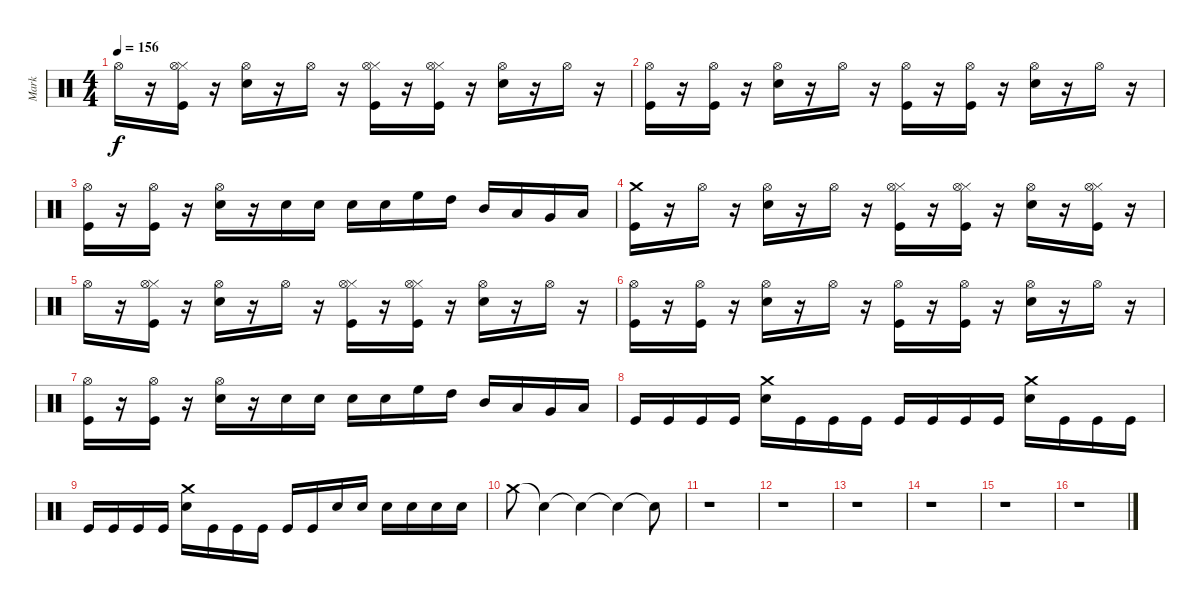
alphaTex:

\track ("Mark" "Mark") {instrument percussion}
\staff {score}
\articulation defaults
\ts (4 4)
\tempo 156
\clef neutral
\ks c "Hi-Hat (open)".16{dy f}
r.16 ("Kick (hit)" "Hi-Hat (closed)" "Hi-Hat (open)").16 r.16 ("Hi-Hat (open)" "Snare (hit) 2").16 r.16 "Hi-Hat (open)".16 r.16 ("Kick (hit)" "Hi-Hat (closed)" "Hi-Hat (open)").16 r.16 ("Kick (hit)" "Hi-Hat (closed)" "Hi-Hat (open)").16 r.16 ("Hi-Hat (open)" "Snare (hit) 2").16 r.16 "Hi-Hat (open)".16 r.16 |
("Kick (hit)" "Hi-Hat (open)").16 r.16 ("Kick (hit)" "Hi-Hat (open)").16 r.16 ("Snare (hit) 2" "Hi-Hat (open)").16 r.16 "Hi-Hat (open)".16 r.16 ("Kick (hit)" "Hi-Hat (open)").16 r.16 ("Kick (hit)" "Hi-Hat (open)").16 r.16 ("Snare (hit) 2" "Hi-Hat (open)").16 r.16 "Hi-Hat (open)".16 r.16 |
("Kick (hit)" "Hi-Hat (open)").16 r.16 ("Kick (hit)" "Hi-Hat (open)").16 r.16 ("Snare (hit) 2" "Hi-Hat (open)").16 r.16 "Snare (hit) 2".16 "Snare (hit) 2".16 "Snare (hit) 2".16 "Snare (hit) 2".16 "High Floor Tom (hit)".16 "High Tom (hit)".16 "Mid Tom (hit)".16 "Low Tom (hit)".16 "Very Low Tom (hit)".16 "Low Floor Tom (hit)".16 |
("Kick (hit)" "Crash medium (hit)").16 r.16 "Hi-Hat (open)".16 r.16 ("Hi-Hat (open)" "Snare (hit) 2").16 r.16 "Hi-Hat (open)".16 r.16 ("Kick (hit)" "Hi-Hat (closed)" "Hi-Hat (open)").16 r.16 ("Kick (hit)" "Hi-Hat (closed)" "Hi-Hat (open)").16 r.16 ("Hi-Hat (open)" "Snare (hit) 2").16 r.16 ("Kick (hit)" "Hi-Hat (closed)" "Hi-Hat (open)").16 r.16 |
"Hi-Hat (open)".16 r.16 ("Kick (hit)" "Hi-Hat (closed)" "Hi-Hat (open)").16 r.16 ("Hi-Hat (open)" "Snare (hit) 2").16 r.16 "Hi-Hat (open)".16 r.16 ("Kick (hit)" "Hi-Hat (closed)" "Hi-Hat (open)").16 r.16 ("Kick (hit)" "Hi-Hat (closed)" "Hi-Hat (open)").16 r.16 ("Hi-Hat (open)" "Snare (hit) 2").16 r.16 "Hi-Hat (open)".16 r.16 |
("Kick (hit)" "Hi-Hat (open)").16 r.16 ("Kick (hit)" "Hi-Hat (open)").16 r.16 ("Snare (hit) 2" "Hi-Hat (open)").16 r.16 "Hi-Hat (open)".16 r.16 ("Kick (hit)" "Hi-Hat (open)").16 r.16 ("Kick (hit)" "Hi-Hat (open)").16 r.16 ("Snare (hit) 2" "Hi-Hat (open)").16 r.16 "Hi-Hat (open)".16 r.16 |
("Kick (hit)" "Hi-Hat (open)").16 r.16 ("Kick (hit)" "Hi-Hat (open)").16 r.16 ("Snare (hit) 2" "Hi-Hat (open)").16 r.16 "Snare (hit) 2".16 "Snare (hit) 2".16 "Snare (hit) 2".16 "Snare (hit) 2".16 "High Floor Tom (hit)".16 "High Tom (hit)".16 "Mid Tom (hit)".16 "Low Tom (hit)".16 "Very Low Tom (hit)".16 "Low Floor Tom (hit)".16 |
"Kick (hit)".16 "Kick (hit)".16 "Kick (hit)".16 "Kick (hit)".16 ("Snare (hit) 2" "Crash medium (hit)").16 "Kick (hit)".16 "Kick (hit)".16 "Kick (hit)".16 "Kick (hit)".16 "Kick (hit)".16 "Kick (hit)".16 "Kick (hit)".16 ("Snare (hit) 2" "Crash medium (hit)").16 "Kick (hit)".16 "Kick (hit)".16 "Kick (hit)".16 |
"Kick (hit)".16 "Kick (hit)".16 "Kick (hit)".16 "Kick (hit)".16 ("Snare (hit) 2" "Crash medium (hit)").16 "Kick (hit)".16 "Kick (hit)".16 "Kick (hit)".16 "Kick (hit)".16 "Kick (hit)".16 "Snare (hit) 2".16 "Snare (hit) 2".16 "Snare (hit) 2".16 "Snare (hit) 2".16 "Snare (hit) 2".16 "Snare (hit) 2".16 |
"Crash medium (hit)".8 "Snare (hit)"{t}.4 "Snare (hit)"{t}.4 "Snare (hit)"{t}.4 "Snare (hit)"{t}.8 |
r.1 |
r.1 |
r.1 |
r.1 |
r.1 |
r.1
